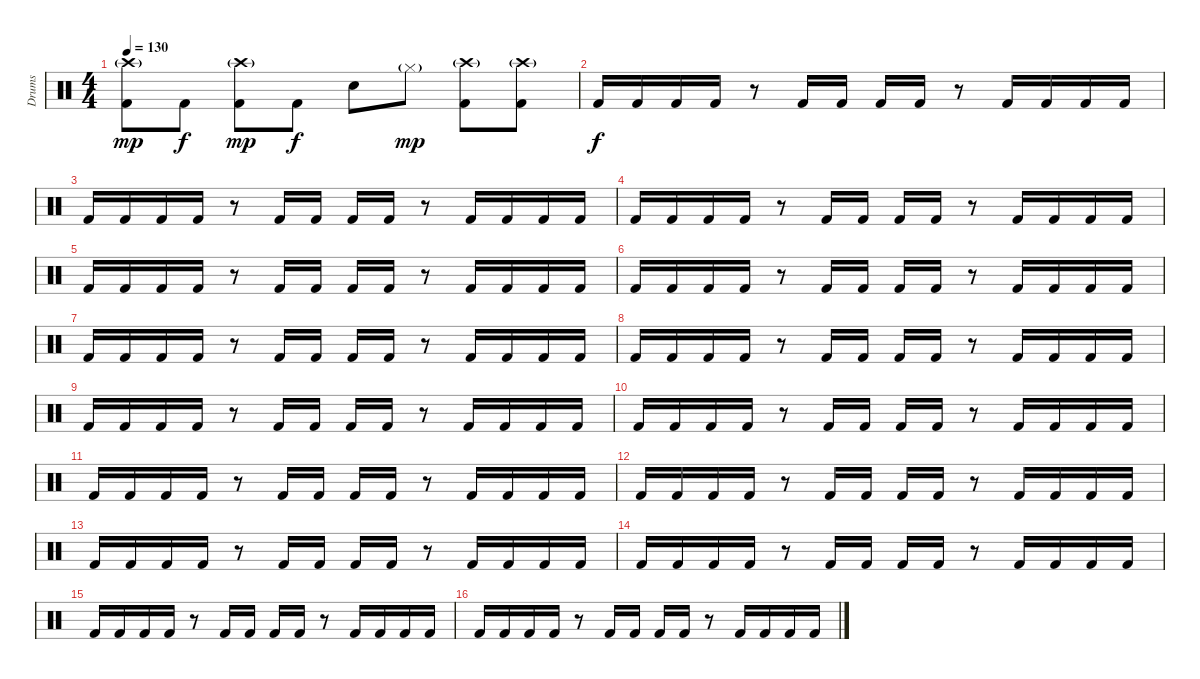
\track ("Drums" "Drums") {instrument percussion}
\staff {score}
\articulation defaults
\ts (4 4)
\tempo 130
\clef neutral
\ks c
("Crash high (hit)"{g} "Kick (hit) 2").8{dy mp} "Kick (hit) 2".8{dy f} ("Crash high (hit)"{g} "Kick (hit) 2").8{dy mp} "Kick (hit) 2".8{dy f} "Snare (hit) 2".8 "Hi-Hat (closed)"{g}.8{dy mp} ("Crash high (hit)"{g} "Kick (hit) 2").8 ("Crash high (hit)"{g} "Kick (hit) 2").8 |
"Kick (hit) 2".16{dy f} "Kick (hit) 2".16 "Kick (hit) 2".16 "Kick (hit) 2".16 r.8 "Kick (hit) 2".16 "Kick (hit) 2".16 "Kick (hit) 2".16 "Kick (hit) 2".16 r.8 "Kick (hit) 2".16 "Kick (hit) 2".16 "Kick (hit) 2".16 "Kick (hit) 2".16 |
"Kick (hit) 2".16 "Kick (hit) 2".16 "Kick (hit) 2".16 "Kick (hit) 2".16 r.8 "Kick (hit) 2".16 "Kick (hit) 2".16 "Kick (hit) 2".16 "Kick (hit) 2".16 r.8 "Kick (hit) 2".16 "Kick (hit) 2".16 "Kick (hit) 2".16 "Kick (hit) 2".16 |
"Kick (hit) 2".16 "Kick (hit) 2".16 "Kick (hit) 2".16 "Kick (hit) 2".16 r.8 "Kick (hit) 2".16 "Kick (hit) 2".16 "Kick (hit) 2".16 "Kick (hit) 2".16 r.8 "Kick (hit) 2".16 "Kick (hit) 2".16 "Kick (hit) 2".16 "Kick (hit) 2".16 |
"Kick (hit) 2".16 "Kick (hit) 2".16 "Kick (hit) 2".16 "Kick (hit) 2".16 r.8 "Kick (hit) 2".16 "Kick (hit) 2".16 "Kick (hit) 2".16 "Kick (hit) 2".16 r.8 "Kick (hit) 2".16 "Kick (hit) 2".16 "Kick (hit) 2".16 "Kick (hit) 2".16 |
"Kick (hit) 2".16 "Kick (hit) 2".16 "Kick (hit) 2".16 "Kick (hit) 2".16 r.8 "Kick (hit) 2".16 "Kick (hit) 2".16 "Kick (hit) 2".16 "Kick (hit) 2".16 r.8 "Kick (hit) 2".16 "Kick (hit) 2".16 "Kick (hit) 2".16 "Kick (hit) 2".16 |
"Kick (hit) 2".16 "Kick (hit) 2".16 "Kick (hit) 2".16 "Kick (hit) 2".16 r.8 "Kick (hit) 2".16 "Kick (hit) 2".16 "Kick (hit) 2".16 "Kick (hit) 2".16 r.8 "Kick (hit) 2".16 "Kick (hit) 2".16 "Kick (hit) 2".16 "Kick (hit) 2".16 |
"Kick (hit) 2".16 "Kick (hit) 2".16 "Kick (hit) 2".16 "Kick (hit) 2".16 r.8 "Kick (hit) 2".16 "Kick (hit) 2".16 "Kick (hit) 2".16 "Kick (hit) 2".16 r.8 "Kick (hit) 2".16 "Kick (hit) 2".16 "Kick (hit) 2".16 "Kick (hit) 2".16 |
"Kick (hit) 2".16 "Kick (hit) 2".16 "Kick (hit) 2".16 "Kick (hit) 2".16 r.8 "Kick (hit) 2".16 "Kick (hit) 2".16 "Kick (hit) 2".16 "Kick (hit) 2".16 r.8 "Kick (hit) 2".16 "Kick (hit) 2".16 "Kick (hit) 2".16 "Kick (hit) 2".16 |
"Kick (hit) 2".16 "Kick (hit) 2".16 "Kick (hit) 2".16 "Kick (hit) 2".16 r.8 "Kick (hit) 2".16 "Kick (hit) 2".16 "Kick (hit) 2".16 "Kick (hit) 2".16 r.8 "Kick (hit) 2".16 "Kick (hit) 2".16 "Kick (hit) 2".16 "Kick (hit) 2".16 |
"Kick (hit) 2".16 "Kick (hit) 2".16 "Kick (hit) 2".16 "Kick (hit) 2".16 r.8 "Kick (hit) 2".16 "Kick (hit) 2".16 "Kick (hit) 2".16 "Kick (hit) 2".16 r.8 "Kick (hit) 2".16 "Kick (hit) 2".16 "Kick (hit) 2".16 "Kick (hit) 2".16 |
"Kick (hit) 2".16 "Kick (hit) 2".16 "Kick (hit) 2".16 "Kick (hit) 2".16 r.8 "Kick (hit) 2".16 "Kick (hit) 2".16 "Kick (hit) 2".16 "Kick (hit) 2".16 r.8 "Kick (hit) 2".16 "Kick (hit) 2".16 "Kick (hit) 2".16 "Kick (hit) 2".16 |
"Kick (hit) 2".16 "Kick (hit) 2".16 "Kick (hit) 2".16 "Kick (hit) 2".16 r.8 "Kick (hit) 2".16 "Kick (hit) 2".16 "Kick (hit) 2".16 "Kick (hit) 2".16 r.8 "Kick (hit) 2".16 "Kick (hit) 2".16 "Kick (hit) 2".16 "Kick (hit) 2".16 |
"Kick (hit) 2".16 "Kick (hit) 2".16 "Kick (hit) 2".16 "Kick (hit) 2".16 r.8 "Kick (hit) 2".16 "Kick (hit) 2".16 "Kick (hit) 2".16 "Kick (hit) 2".16 r.8 "Kick (hit) 2".16 "Kick (hit) 2".16 "Kick (hit) 2".16 "Kick (hit) 2".16 |
"Kick (hit) 2".16 "Kick (hit) 2".16 "Kick (hit) 2".16 "Kick (hit) 2".16 r.8 "Kick (hit) 2".16 "Kick (hit) 2".16 "Kick (hit) 2".16 "Kick (hit) 2".16 r.8 "Kick (hit) 2".16 "Kick (hit) 2".16 "Kick (hit) 2".16 "Kick (hit) 2".16 |
"Kick (hit) 2".16 "Kick (hit) 2".16 "Kick (hit) 2".16 "Kick (hit) 2".16 r.8 "Kick (hit) 2".16 "Kick (hit) 2".16 "Kick (hit) 2".16 "Kick (hit) 2".16 r.8 "Kick (hit) 2".16 "Kick (hit) 2".16 "Kick (hit) 2".16 "Kick (hit) 2".16
